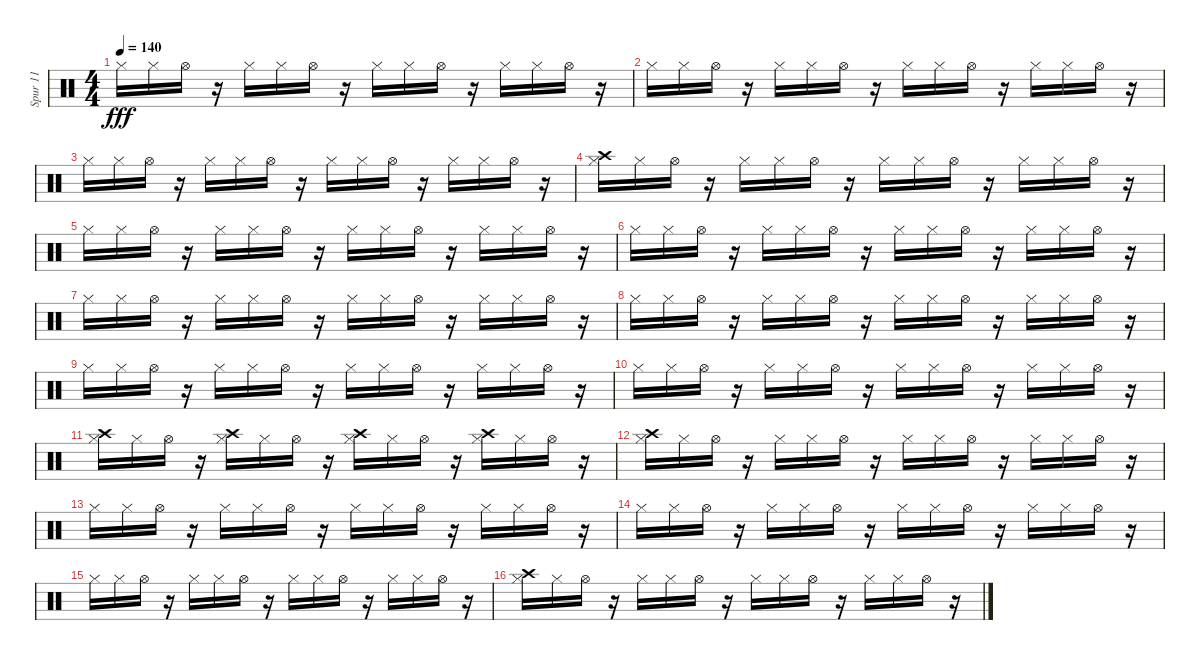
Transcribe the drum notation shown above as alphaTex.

\track ("Spur 11" "Spur 11") {instrument percussion}
\staff {score}
\articulation defaults
\ts (4 4)
\tempo 140
\clef neutral
\ks c "Hi-Hat (closed)".16{dy fff} "Hi-Hat (closed)".16 "Hi-Hat (open)".16
r.16 "Hi-Hat (closed)".16 "Hi-Hat (closed)".16 "Hi-Hat (open)".16 r.16 "Hi-Hat (closed)".16 "Hi-Hat (closed)".16 "Hi-Hat (open)".16 r.16 "Hi-Hat (closed)".16 "Hi-Hat (closed)".16 "Hi-Hat (open)".16 r.16 |
"Hi-Hat (closed)".16 "Hi-Hat (closed)".16 "Hi-Hat (open)".16 r.16 "Hi-Hat (closed)".16 "Hi-Hat (closed)".16 "Hi-Hat (open)".16 r.16 "Hi-Hat (closed)".16 "Hi-Hat (closed)".16 "Hi-Hat (open)".16 r.16 "Hi-Hat (closed)".16 "Hi-Hat (closed)".16 "Hi-Hat (open)".16 r.16 |
"Hi-Hat (closed)".16 "Hi-Hat (closed)".16 "Hi-Hat (open)".16 r.16 "Hi-Hat (closed)".16 "Hi-Hat (closed)".16 "Hi-Hat (open)".16 r.16 "Hi-Hat (closed)".16 "Hi-Hat (closed)".16 "Hi-Hat (open)".16 r.16 "Hi-Hat (closed)".16 "Hi-Hat (closed)".16 "Hi-Hat (open)".16 r.16 |
("Crash high (hit)" "Hi-Hat (closed)").16 "Hi-Hat (closed)".16 "Hi-Hat (open)".16 r.16 "Hi-Hat (closed)".16 "Hi-Hat (closed)".16 "Hi-Hat (open)".16 r.16 "Hi-Hat (closed)".16 "Hi-Hat (closed)".16 "Hi-Hat (open)".16 r.16 "Hi-Hat (closed)".16 "Hi-Hat (closed)".16 "Hi-Hat (open)".16 r.16 |
"Hi-Hat (closed)".16 "Hi-Hat (closed)".16 "Hi-Hat (open)".16 r.16 "Hi-Hat (closed)".16 "Hi-Hat (closed)".16 "Hi-Hat (open)".16 r.16 "Hi-Hat (closed)".16 "Hi-Hat (closed)".16 "Hi-Hat (open)".16 r.16 "Hi-Hat (closed)".16 "Hi-Hat (closed)".16 "Hi-Hat (open)".16 r.16 |
"Hi-Hat (closed)".16 "Hi-Hat (closed)".16 "Hi-Hat (open)".16 r.16 "Hi-Hat (closed)".16 "Hi-Hat (closed)".16 "Hi-Hat (open)".16 r.16 "Hi-Hat (closed)".16 "Hi-Hat (closed)".16 "Hi-Hat (open)".16 r.16 "Hi-Hat (closed)".16 "Hi-Hat (closed)".16 "Hi-Hat (open)".16 r.16 |
"Hi-Hat (closed)".16 "Hi-Hat (closed)".16 "Hi-Hat (open)".16 r.16 "Hi-Hat (closed)".16 "Hi-Hat (closed)".16 "Hi-Hat (open)".16 r.16 "Hi-Hat (closed)".16 "Hi-Hat (closed)".16 "Hi-Hat (open)".16 r.16 "Hi-Hat (closed)".16 "Hi-Hat (closed)".16 "Hi-Hat (open)".16 r.16 |
"Hi-Hat (closed)".16 "Hi-Hat (closed)".16 "Hi-Hat (open)".16 r.16 "Hi-Hat (closed)".16 "Hi-Hat (closed)".16 "Hi-Hat (open)".16 r.16 "Hi-Hat (closed)".16 "Hi-Hat (closed)".16 "Hi-Hat (open)".16 r.16 "Hi-Hat (closed)".16 "Hi-Hat (closed)".16 "Hi-Hat (open)".16 r.16 |
"Hi-Hat (closed)".16 "Hi-Hat (closed)".16 "Hi-Hat (open)".16 r.16 "Hi-Hat (closed)".16 "Hi-Hat (closed)".16 "Hi-Hat (open)".16 r.16 "Hi-Hat (closed)".16 "Hi-Hat (closed)".16 "Hi-Hat (open)".16 r.16 "Hi-Hat (closed)".16 "Hi-Hat (closed)".16 "Hi-Hat (open)".16 r.16 |
"Hi-Hat (closed)".16 "Hi-Hat (closed)".16 "Hi-Hat (open)".16 r.16 "Hi-Hat (closed)".16 "Hi-Hat (closed)".16 "Hi-Hat (open)".16 r.16 "Hi-Hat (closed)".16 "Hi-Hat (closed)".16 "Hi-Hat (open)".16 r.16 "Hi-Hat (closed)".16 "Hi-Hat (closed)".16 "Hi-Hat (open)".16 r.16 |
("Crash high (hit)" "Hi-Hat (closed)").16 "Hi-Hat (closed)".16 "Hi-Hat (open)".16 r.16 ("Crash high (hit)" "Hi-Hat (closed)").16 "Hi-Hat (closed)".16 "Hi-Hat (open)".16 r.16 ("Crash high (hit)" "Hi-Hat (closed)").16 "Hi-Hat (closed)".16 "Hi-Hat (open)".16 r.16 ("Crash high (hit)" "Hi-Hat (closed)").16 "Hi-Hat (closed)".16 "Hi-Hat (open)".16 r.16 |
("Crash high (hit)" "Hi-Hat (closed)").16 "Hi-Hat (closed)".16 "Hi-Hat (open)".16 r.16 "Hi-Hat (closed)".16 "Hi-Hat (closed)".16 "Hi-Hat (open)".16 r.16 "Hi-Hat (closed)".16 "Hi-Hat (closed)".16 "Hi-Hat (open)".16 r.16 "Hi-Hat (closed)".16 "Hi-Hat (closed)".16 "Hi-Hat (open)".16 r.16 |
"Hi-Hat (closed)".16 "Hi-Hat (closed)".16 "Hi-Hat (open)".16 r.16 "Hi-Hat (closed)".16 "Hi-Hat (closed)".16 "Hi-Hat (open)".16 r.16 "Hi-Hat (closed)".16 "Hi-Hat (closed)".16 "Hi-Hat (open)".16 r.16 "Hi-Hat (closed)".16 "Hi-Hat (closed)".16 "Hi-Hat (open)".16 r.16 |
"Hi-Hat (closed)".16 "Hi-Hat (closed)".16 "Hi-Hat (open)".16 r.16 "Hi-Hat (closed)".16 "Hi-Hat (closed)".16 "Hi-Hat (open)".16 r.16 "Hi-Hat (closed)".16 "Hi-Hat (closed)".16 "Hi-Hat (open)".16 r.16 "Hi-Hat (closed)".16 "Hi-Hat (closed)".16 "Hi-Hat (open)".16 r.16 |
"Hi-Hat (closed)".16 "Hi-Hat (closed)".16 "Hi-Hat (open)".16 r.16 "Hi-Hat (closed)".16 "Hi-Hat (closed)".16 "Hi-Hat (open)".16 r.16 "Hi-Hat (closed)".16 "Hi-Hat (closed)".16 "Hi-Hat (open)".16 r.16 "Hi-Hat (closed)".16 "Hi-Hat (closed)".16 "Hi-Hat (open)".16 r.16 |
("Crash high (hit)" "Hi-Hat (closed)").16 "Hi-Hat (closed)".16 "Hi-Hat (open)".16 r.16 "Hi-Hat (closed)".16 "Hi-Hat (closed)".16 "Hi-Hat (open)".16 r.16 "Hi-Hat (closed)".16 "Hi-Hat (closed)".16 "Hi-Hat (open)".16 r.16 "Hi-Hat (closed)".16 "Hi-Hat (closed)".16 "Hi-Hat (open)".16 r.16
